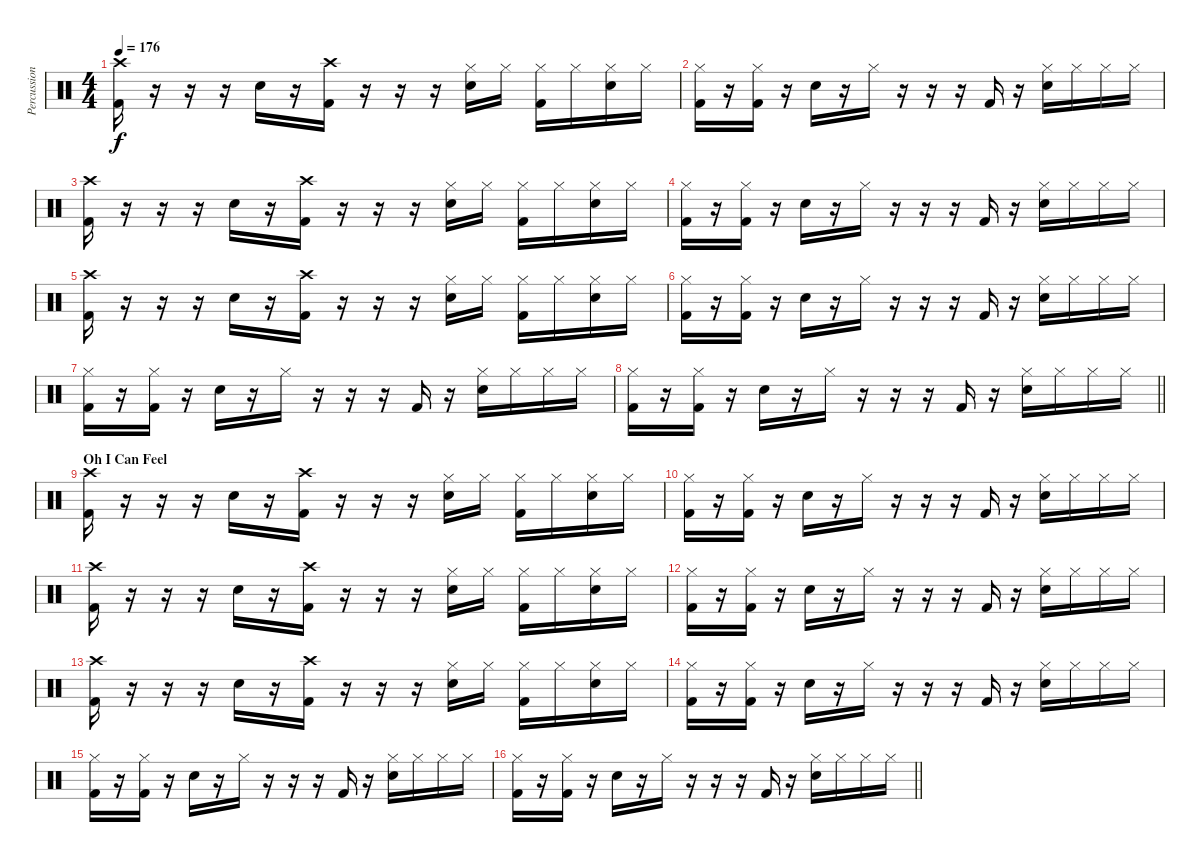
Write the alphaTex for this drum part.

\track ("Percussion" "Percussion") {instrument percussion}
\staff {score}
\articulation defaults
\ts (4 4)
\tempo 176
\clef neutral
\ks c
("Kick (hit) 2" "Crash high (hit)").16{dy f} r.16 r.16 r.16 "Electric Snare (hit)".16 r.16 ("Kick (hit) 2" "Crash high (hit)").16 r.16 r.16 r.16 ("Electric Snare (hit)" "Hi-Hat (closed)").16 "Hi-Hat (closed)".16 ("Kick (hit) 2" "Hi-Hat (closed)").16 "Hi-Hat (closed)".16 ("Electric Snare (hit)" "Hi-Hat (closed)").16 "Hi-Hat (closed)".16 |
("Kick (hit) 2" "Hi-Hat (closed)").16 r.16 ("Kick (hit) 2" "Hi-Hat (closed)").16 r.16 "Electric Snare (hit)".16 r.16 "Hi-Hat (closed)".16 r.16 r.16 r.16 "Kick (hit) 2".16 r.16 ("Electric Snare (hit)" "Hi-Hat (closed)").16 "Hi-Hat (closed)".16 "Hi-Hat (closed)".16 "Hi-Hat (closed)".16 |
("Kick (hit) 2" "Crash high (hit)").16 r.16 r.16 r.16 "Electric Snare (hit)".16 r.16 ("Kick (hit) 2" "Crash high (hit)").16 r.16 r.16 r.16 ("Electric Snare (hit)" "Hi-Hat (closed)").16 "Hi-Hat (closed)".16 ("Kick (hit) 2" "Hi-Hat (closed)").16 "Hi-Hat (closed)".16 ("Electric Snare (hit)" "Hi-Hat (closed)").16 "Hi-Hat (closed)".16 |
("Kick (hit) 2" "Hi-Hat (closed)").16 r.16 ("Kick (hit) 2" "Hi-Hat (closed)").16 r.16 "Electric Snare (hit)".16 r.16 "Hi-Hat (closed)".16 r.16 r.16 r.16 "Kick (hit) 2".16 r.16 ("Electric Snare (hit)" "Hi-Hat (closed)").16 "Hi-Hat (closed)".16 "Hi-Hat (closed)".16 "Hi-Hat (closed)".16 |
("Kick (hit) 2" "Crash high (hit)").16 r.16 r.16 r.16 "Electric Snare (hit)".16 r.16 ("Kick (hit) 2" "Crash high (hit)").16 r.16 r.16 r.16 ("Electric Snare (hit)" "Hi-Hat (closed)").16 "Hi-Hat (closed)".16 ("Kick (hit) 2" "Hi-Hat (closed)").16 "Hi-Hat (closed)".16 ("Electric Snare (hit)" "Hi-Hat (closed)").16 "Hi-Hat (closed)".16 |
("Kick (hit) 2" "Hi-Hat (closed)").16 r.16 ("Kick (hit) 2" "Hi-Hat (closed)").16 r.16 "Electric Snare (hit)".16 r.16 "Hi-Hat (closed)".16 r.16 r.16 r.16 "Kick (hit) 2".16 r.16 ("Electric Snare (hit)" "Hi-Hat (closed)").16 "Hi-Hat (closed)".16 "Hi-Hat (closed)".16 "Hi-Hat (closed)".16 |
("Kick (hit) 2" "Hi-Hat (closed)").16 r.16 ("Kick (hit) 2" "Hi-Hat (closed)").16 r.16 "Electric Snare (hit)".16 r.16 "Hi-Hat (closed)".16 r.16 r.16 r.16 "Kick (hit) 2".16 r.16 ("Electric Snare (hit)" "Hi-Hat (closed)").16 "Hi-Hat (closed)".16 "Hi-Hat (closed)".16 "Hi-Hat (closed)".16 |
\barLineRight lightlight
("Kick (hit) 2" "Hi-Hat (closed)").16 r.16 ("Kick (hit) 2" "Hi-Hat (closed)").16 r.16 "Electric Snare (hit)".16 r.16 "Hi-Hat (closed)".16 r.16 r.16 r.16 "Kick (hit) 2".16 r.16 ("Electric Snare (hit)" "Hi-Hat (closed)").16 "Hi-Hat (closed)".16 "Hi-Hat (closed)".16 "Hi-Hat (closed)".16 |
\section ("" "Oh I Can Feel")
("Kick (hit) 2" "Crash high (hit)").16 r.16 r.16 r.16 "Electric Snare (hit)".16 r.16 ("Kick (hit) 2" "Crash high (hit)").16 r.16 r.16 r.16 ("Electric Snare (hit)" "Hi-Hat (closed)").16 "Hi-Hat (closed)".16 ("Kick (hit) 2" "Hi-Hat (closed)").16 "Hi-Hat (closed)".16 ("Electric Snare (hit)" "Hi-Hat (closed)").16 "Hi-Hat (closed)".16 |
("Kick (hit) 2" "Hi-Hat (closed)").16 r.16 ("Kick (hit) 2" "Hi-Hat (closed)").16 r.16 "Electric Snare (hit)".16 r.16 "Hi-Hat (closed)".16 r.16 r.16 r.16 "Kick (hit) 2".16 r.16 ("Electric Snare (hit)" "Hi-Hat (closed)").16 "Hi-Hat (closed)".16 "Hi-Hat (closed)".16 "Hi-Hat (closed)".16 |
("Kick (hit) 2" "Crash high (hit)").16 r.16 r.16 r.16 "Electric Snare (hit)".16 r.16 ("Kick (hit) 2" "Crash high (hit)").16 r.16 r.16 r.16 ("Electric Snare (hit)" "Hi-Hat (closed)").16 "Hi-Hat (closed)".16 ("Kick (hit) 2" "Hi-Hat (closed)").16 "Hi-Hat (closed)".16 ("Electric Snare (hit)" "Hi-Hat (closed)").16 "Hi-Hat (closed)".16 |
("Kick (hit) 2" "Hi-Hat (closed)").16 r.16 ("Kick (hit) 2" "Hi-Hat (closed)").16 r.16 "Electric Snare (hit)".16 r.16 "Hi-Hat (closed)".16 r.16 r.16 r.16 "Kick (hit) 2".16 r.16 ("Electric Snare (hit)" "Hi-Hat (closed)").16 "Hi-Hat (closed)".16 "Hi-Hat (closed)".16 "Hi-Hat (closed)".16 |
("Kick (hit) 2" "Crash high (hit)").16 r.16 r.16 r.16 "Electric Snare (hit)".16 r.16 ("Kick (hit) 2" "Crash high (hit)").16 r.16 r.16 r.16 ("Electric Snare (hit)" "Hi-Hat (closed)").16 "Hi-Hat (closed)".16 ("Kick (hit) 2" "Hi-Hat (closed)").16 "Hi-Hat (closed)".16 ("Electric Snare (hit)" "Hi-Hat (closed)").16 "Hi-Hat (closed)".16 |
("Kick (hit) 2" "Hi-Hat (closed)").16 r.16 ("Kick (hit) 2" "Hi-Hat (closed)").16 r.16 "Electric Snare (hit)".16 r.16 "Hi-Hat (closed)".16 r.16 r.16 r.16 "Kick (hit) 2".16 r.16 ("Electric Snare (hit)" "Hi-Hat (closed)").16 "Hi-Hat (closed)".16 "Hi-Hat (closed)".16 "Hi-Hat (closed)".16 |
("Kick (hit) 2" "Hi-Hat (closed)").16 r.16 ("Kick (hit) 2" "Hi-Hat (closed)").16 r.16 "Electric Snare (hit)".16 r.16 "Hi-Hat (closed)".16 r.16 r.16 r.16 "Kick (hit) 2".16 r.16 ("Electric Snare (hit)" "Hi-Hat (closed)").16 "Hi-Hat (closed)".16 "Hi-Hat (closed)".16 "Hi-Hat (closed)".16 |
\barLineRight lightlight
("Kick (hit) 2" "Hi-Hat (closed)").16 r.16 ("Kick (hit) 2" "Hi-Hat (closed)").16 r.16 "Electric Snare (hit)".16 r.16 "Hi-Hat (closed)".16 r.16 r.16 r.16 "Kick (hit) 2".16 r.16 ("Electric Snare (hit)" "Hi-Hat (closed)").16 "Hi-Hat (closed)".16 "Hi-Hat (closed)".16 "Hi-Hat (closed)".16
